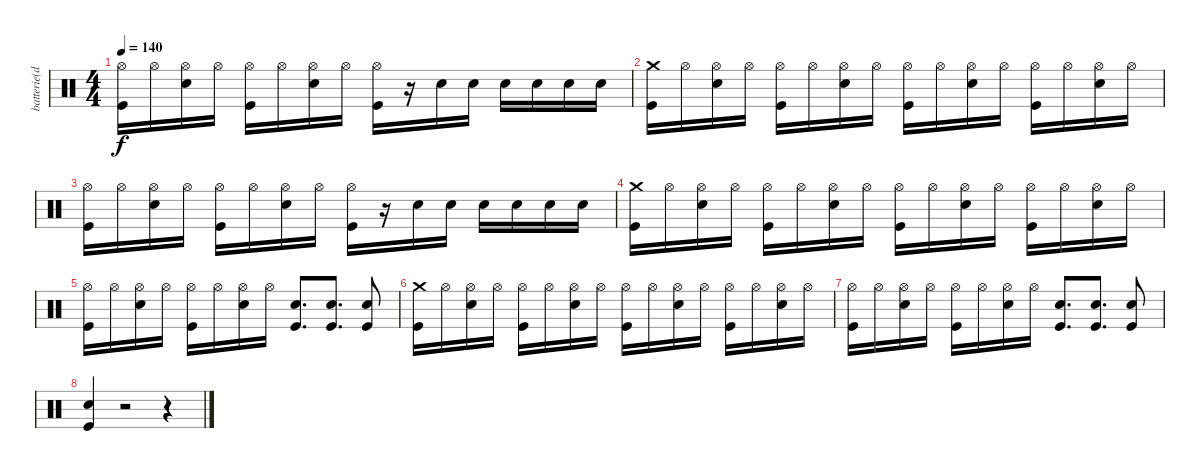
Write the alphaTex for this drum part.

\track ("batterie(dru stix)" "batterie(d") {instrument percussion}
\staff {score}
\articulation defaults
\ts (4 4)
\tempo 140
\clef neutral
\ks c
("Hi-Hat (open)" "Kick (hit)").16{dy f} "Hi-Hat (open)".16 ("Hi-Hat (open)" "Snare (hit) 2").16 "Hi-Hat (open)".16 ("Hi-Hat (open)" "Kick (hit)").16 "Hi-Hat (open)".16 ("Hi-Hat (open)" "Snare (hit) 2").16 "Hi-Hat (open)".16 ("Hi-Hat (open)" "Kick (hit)").16 r.16 "Snare (hit) 2".16 "Snare (hit) 2".16 "Snare (hit) 2".16 "Snare (hit) 2".16 "Snare (hit) 2".16 "Snare (hit) 2".16 |
("Crash medium (hit)" "Kick (hit)").16 "Hi-Hat (open)".16 ("Hi-Hat (open)" "Snare (hit) 2").16 "Hi-Hat (open)".16 ("Hi-Hat (open)" "Kick (hit)").16 "Hi-Hat (open)".16 ("Hi-Hat (open)" "Snare (hit) 2").16 "Hi-Hat (open)".16 ("Hi-Hat (open)" "Kick (hit)").16 "Hi-Hat (open)".16 ("Hi-Hat (open)" "Snare (hit) 2").16 "Hi-Hat (open)".16 ("Hi-Hat (open)" "Kick (hit)").16 "Hi-Hat (open)".16 ("Hi-Hat (open)" "Snare (hit) 2").16 "Hi-Hat (open)".16 |
("Hi-Hat (open)" "Kick (hit)").16 "Hi-Hat (open)".16 ("Hi-Hat (open)" "Snare (hit) 2").16 "Hi-Hat (open)".16 ("Hi-Hat (open)" "Kick (hit)").16 "Hi-Hat (open)".16 ("Hi-Hat (open)" "Snare (hit) 2").16 "Hi-Hat (open)".16 ("Hi-Hat (open)" "Kick (hit)").16 r.16 "Snare (hit) 2".16 "Snare (hit) 2".16 "Snare (hit) 2".16 "Snare (hit) 2".16 "Snare (hit) 2".16 "Snare (hit) 2".16 |
("Crash medium (hit)" "Kick (hit)").16 "Hi-Hat (open)".16 ("Hi-Hat (open)" "Snare (hit) 2").16 "Hi-Hat (open)".16 ("Hi-Hat (open)" "Kick (hit)").16 "Hi-Hat (open)".16 ("Hi-Hat (open)" "Snare (hit) 2").16 "Hi-Hat (open)".16 ("Hi-Hat (open)" "Kick (hit)").16 "Hi-Hat (open)".16 ("Hi-Hat (open)" "Snare (hit) 2").16 "Hi-Hat (open)".16 ("Hi-Hat (open)" "Kick (hit)").16 "Hi-Hat (open)".16 ("Hi-Hat (open)" "Snare (hit) 2").16 "Hi-Hat (open)".16 |
("Hi-Hat (open)" "Kick (hit)").16 "Hi-Hat (open)".16 ("Hi-Hat (open)" "Snare (hit) 2").16 "Hi-Hat (open)".16 ("Hi-Hat (open)" "Kick (hit)").16 "Hi-Hat (open)".16 ("Hi-Hat (open)" "Snare (hit) 2").16 "Hi-Hat (open)".16 ("Snare (hit) 2" "Kick (hit)").8{d} ("Snare (hit) 2" "Kick (hit)").8{d} ("Snare (hit) 2" "Kick (hit)").8 |
("Crash medium (hit)" "Kick (hit)").16 "Hi-Hat (open)".16 ("Hi-Hat (open)" "Snare (hit) 2").16 "Hi-Hat (open)".16 ("Hi-Hat (open)" "Kick (hit)").16 "Hi-Hat (open)".16 ("Hi-Hat (open)" "Snare (hit) 2").16 "Hi-Hat (open)".16 ("Hi-Hat (open)" "Kick (hit)").16 "Hi-Hat (open)".16 ("Hi-Hat (open)" "Snare (hit) 2").16 "Hi-Hat (open)".16 ("Hi-Hat (open)" "Kick (hit)").16 "Hi-Hat (open)".16 ("Hi-Hat (open)" "Snare (hit) 2").16 "Hi-Hat (open)".16 |
("Hi-Hat (open)" "Kick (hit)").16 "Hi-Hat (open)".16 ("Hi-Hat (open)" "Snare (hit) 2").16 "Hi-Hat (open)".16 ("Hi-Hat (open)" "Kick (hit)").16 "Hi-Hat (open)".16 ("Hi-Hat (open)" "Snare (hit) 2").16 "Hi-Hat (open)".16 ("Snare (hit) 2" "Kick (hit)").8{d} ("Snare (hit) 2" "Kick (hit)").8{d} ("Snare (hit) 2" "Kick (hit)").8 |
("Snare (hit) 2" "Kick (hit)").4 r.2 r.4
